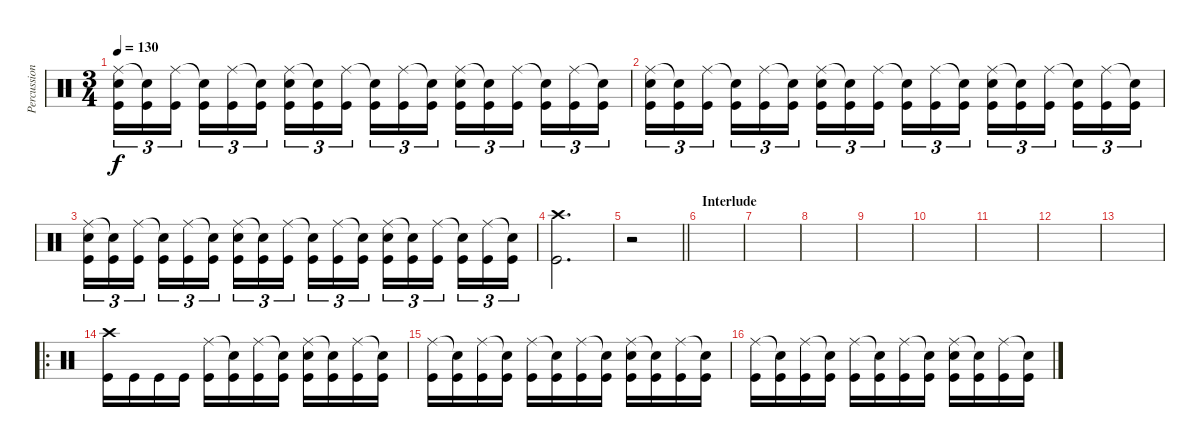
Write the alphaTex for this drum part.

\track ("Percussion" "Percussion") {instrument percussion}
\staff {score}
\articulation defaults
\ts (3 4)
\tempo 130
\clef neutral
\ks c
("Ride (middle)" "Electric Snare (hit)" "Kick (hit)").16{tu (3 2) dy f} ("Snare (hit)"{t} "Kick (hit)").16{tu (3 2)} ("Ride (middle)" "Kick (hit)").16{tu (3 2) beam splitsecondary} ("Snare (hit)"{t} "Kick (hit)").16{tu (3 2)} ("Ride (middle)" "Kick (hit)").16{tu (3 2)} ("Snare (hit)"{t} "Kick (hit)").16{tu (3 2)} ("Ride (middle)" "Electric Snare (hit)" "Kick (hit)").16{tu (3 2)} ("Snare (hit)"{t} "Kick (hit)").16{tu (3 2)} ("Ride (middle)" "Kick (hit)").16{tu (3 2) beam splitsecondary} ("Snare (hit)"{t} "Kick (hit)").16{tu (3 2)} ("Ride (middle)" "Kick (hit)").16{tu (3 2)} ("Snare (hit)"{t} "Kick (hit)").16{tu (3 2)} ("Ride (middle)" "Electric Snare (hit)" "Kick (hit)").16{tu (3 2)} ("Snare (hit)"{t} "Kick (hit)").16{tu (3 2)} ("Ride (middle)" "Kick (hit)").16{tu (3 2) beam splitsecondary} ("Snare (hit)"{t} "Kick (hit)").16{tu (3 2)} ("Ride (middle)" "Kick (hit)").16{tu (3 2)} ("Snare (hit)"{t} "Kick (hit)").16{tu (3 2)} |
("Ride (middle)" "Electric Snare (hit)" "Kick (hit)").16{tu (3 2)} ("Snare (hit)"{t} "Kick (hit)").16{tu (3 2)} ("Ride (middle)" "Kick (hit)").16{tu (3 2) beam splitsecondary} ("Snare (hit)"{t} "Kick (hit)").16{tu (3 2)} ("Ride (middle)" "Kick (hit)").16{tu (3 2)} ("Snare (hit)"{t} "Kick (hit)").16{tu (3 2)} ("Ride (middle)" "Electric Snare (hit)" "Kick (hit)").16{tu (3 2)} ("Snare (hit)"{t} "Kick (hit)").16{tu (3 2)} ("Ride (middle)" "Kick (hit)").16{tu (3 2) beam splitsecondary} ("Snare (hit)"{t} "Kick (hit)").16{tu (3 2)} ("Ride (middle)" "Kick (hit)").16{tu (3 2)} ("Snare (hit)"{t} "Kick (hit)").16{tu (3 2)} ("Ride (middle)" "Electric Snare (hit)" "Kick (hit)").16{tu (3 2)} ("Snare (hit)"{t} "Kick (hit)").16{tu (3 2)} ("Ride (middle)" "Kick (hit)").16{tu (3 2) beam splitsecondary} ("Snare (hit)"{t} "Kick (hit)").16{tu (3 2)} ("Ride (middle)" "Kick (hit)").16{tu (3 2)} ("Snare (hit)"{t} "Kick (hit)").16{tu (3 2)} |
("Ride (middle)" "Electric Snare (hit)" "Kick (hit)").16{tu (3 2)} ("Snare (hit)"{t} "Kick (hit)").16{tu (3 2)} ("Ride (middle)" "Kick (hit)").16{tu (3 2) beam splitsecondary} ("Snare (hit)"{t} "Kick (hit)").16{tu (3 2)} ("Ride (middle)" "Kick (hit)").16{tu (3 2)} ("Snare (hit)"{t} "Kick (hit)").16{tu (3 2)} ("Ride (middle)" "Electric Snare (hit)" "Kick (hit)").16{tu (3 2)} ("Snare (hit)"{t} "Kick (hit)").16{tu (3 2)} ("Ride (middle)" "Kick (hit)").16{tu (3 2) beam splitsecondary} ("Snare (hit)"{t} "Kick (hit)").16{tu (3 2)} ("Ride (middle)" "Kick (hit)").16{tu (3 2)} ("Snare (hit)"{t} "Kick (hit)").16{tu (3 2)} ("Ride (middle)" "Electric Snare (hit)" "Kick (hit)").16{tu (3 2)} ("Snare (hit)"{t} "Kick (hit)").16{tu (3 2)} ("Ride (middle)" "Kick (hit)").16{tu (3 2) beam splitsecondary} ("Snare (hit)"{t} "Kick (hit)").16{tu (3 2)} ("Ride (middle)" "Kick (hit)").16{tu (3 2)} ("Snare (hit)"{t} "Kick (hit)").16{tu (3 2)} |
("Crash high (hit)" "Kick (hit)").2{d} |
\barLineRight lightlight
r.2 |
\section ("" "Interlude")
|
|
|
|
|
|
|
|
\ro
("Crash high (hit)" "Kick (hit)").16 "Kick (hit)".16 "Kick (hit)".16 "Kick (hit)".16 ("Ride (middle)" "Kick (hit)").16 ("Snare (hit)"{t} "Kick (hit)").16 ("Ride (middle)" "Kick (hit)").16 ("Snare (hit)"{t} "Kick (hit)").16 ("Ride (middle)" "Electric Snare (hit)" "Kick (hit)").16 ("Snare (hit)"{t} "Kick (hit)").16 ("Ride (middle)" "Kick (hit)").16 ("Snare (hit)"{t} "Kick (hit)").16 |
("Ride (middle)" "Kick (hit)").16 ("Snare (hit)"{t} "Kick (hit)").16 ("Ride (middle)" "Kick (hit)").16 ("Snare (hit)"{t} "Kick (hit)").16 ("Ride (middle)" "Kick (hit)").16 ("Snare (hit)"{t} "Kick (hit)").16 ("Ride (middle)" "Kick (hit)").16 ("Snare (hit)"{t} "Kick (hit)").16 ("Ride (middle)" "Electric Snare (hit)" "Kick (hit)").16 ("Snare (hit)"{t} "Kick (hit)").16 ("Ride (middle)" "Kick (hit)").16 ("Snare (hit)"{t} "Kick (hit)").16 |
("Ride (middle)" "Kick (hit)").16 ("Snare (hit)"{t} "Kick (hit)").16 ("Ride (middle)" "Kick (hit)").16 ("Snare (hit)"{t} "Kick (hit)").16 ("Ride (middle)" "Kick (hit)").16 ("Snare (hit)"{t} "Kick (hit)").16 ("Ride (middle)" "Kick (hit)").16 ("Snare (hit)"{t} "Kick (hit)").16 ("Ride (middle)" "Electric Snare (hit)" "Kick (hit)").16 ("Snare (hit)"{t} "Kick (hit)").16 ("Ride (middle)" "Kick (hit)").16 ("Snare (hit)"{t} "Kick (hit)").16
